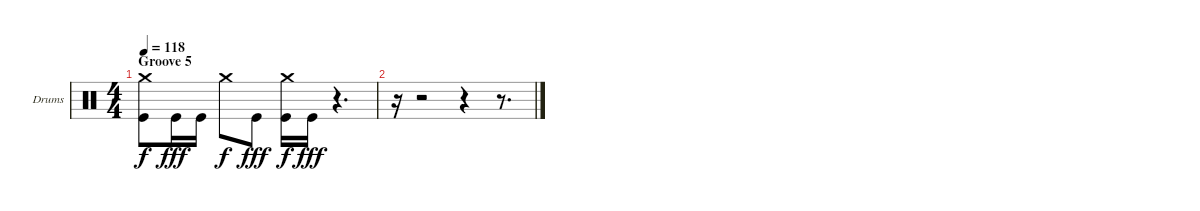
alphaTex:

\bracketExtendMode groupsimilarinstruments
\firstSystemTrackNameOrientation horizontal
\otherSystemsTrackNameOrientation horizontal
\track ("Drumkit" "Drums") {instrument percussion}
\staff {score}
\articulation defaults
\ts (4 4)
\section ("" "Groove 5")
\tempo 118
\clef neutral
\ks c
("Crash medium (hit)" "Kick (hit)").8{dy f} "Kick (hit)".16{dy fff} "Kick (hit)".16 "Crash medium (hit)".8{dy f} "Kick (hit)".8{dy fff} ("Crash medium (hit)" "Kick (hit)").16{dy f} "Kick (hit)".16{dy fff} r.4{d} |
r.16 r.2 r.4 r.8{d}
